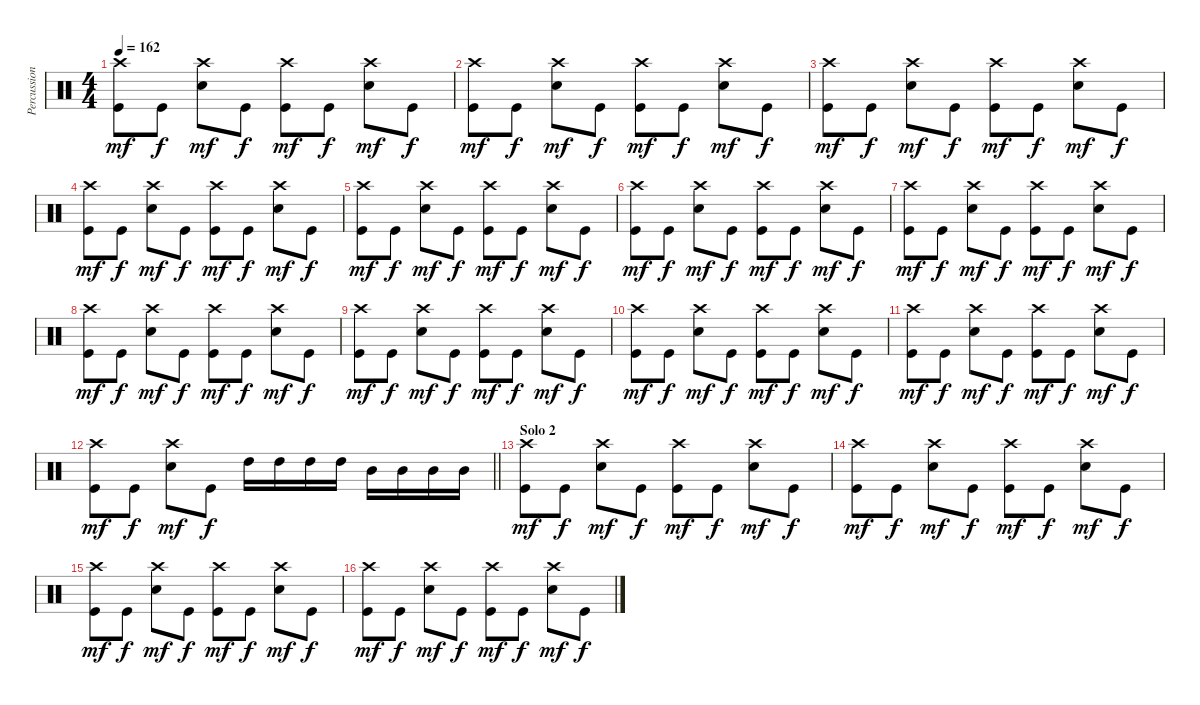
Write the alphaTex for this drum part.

\track ("Percussions" "Percussion") {instrument percussion}
\staff {score}
\articulation defaults
\ts (4 4)
\tempo 162
\clef neutral
\ks c
("Crash high (hit)" "Kick (hit)").8{dy mf} "Kick (hit)".8{dy f} ("Crash high (hit)" "Electric Snare (hit)").8{dy mf} "Kick (hit)".8{dy f} ("Crash high (hit)" "Kick (hit)").8{dy mf} "Kick (hit)".8{dy f} ("Crash high (hit)" "Electric Snare (hit)").8{dy mf} "Kick (hit)".8{dy f} |
("Crash high (hit)" "Kick (hit)").8{dy mf} "Kick (hit)".8{dy f} ("Crash high (hit)" "Electric Snare (hit)").8{dy mf} "Kick (hit)".8{dy f} ("Crash high (hit)" "Kick (hit)").8{dy mf} "Kick (hit)".8{dy f} ("Crash high (hit)" "Electric Snare (hit)").8{dy mf} "Kick (hit)".8{dy f} |
("Crash high (hit)" "Kick (hit)").8{dy mf} "Kick (hit)".8{dy f} ("Crash high (hit)" "Electric Snare (hit)").8{dy mf} "Kick (hit)".8{dy f} ("Crash high (hit)" "Kick (hit)").8{dy mf} "Kick (hit)".8{dy f} ("Crash high (hit)" "Electric Snare (hit)").8{dy mf} "Kick (hit)".8{dy f} |
("Crash high (hit)" "Kick (hit)").8{dy mf} "Kick (hit)".8{dy f} ("Crash high (hit)" "Electric Snare (hit)").8{dy mf} "Kick (hit)".8{dy f} ("Crash high (hit)" "Kick (hit)").8{dy mf} "Kick (hit)".8{dy f} ("Crash high (hit)" "Electric Snare (hit)").8{dy mf} "Kick (hit)".8{dy f} |
("Crash high (hit)" "Kick (hit)").8{dy mf} "Kick (hit)".8{dy f} ("Crash high (hit)" "Electric Snare (hit)").8{dy mf} "Kick (hit)".8{dy f} ("Crash high (hit)" "Kick (hit)").8{dy mf} "Kick (hit)".8{dy f} ("Crash high (hit)" "Electric Snare (hit)").8{dy mf} "Kick (hit)".8{dy f} |
("Crash high (hit)" "Kick (hit)").8{dy mf} "Kick (hit)".8{dy f} ("Crash high (hit)" "Electric Snare (hit)").8{dy mf} "Kick (hit)".8{dy f} ("Crash high (hit)" "Kick (hit)").8{dy mf} "Kick (hit)".8{dy f} ("Crash high (hit)" "Electric Snare (hit)").8{dy mf} "Kick (hit)".8{dy f} |
("Crash high (hit)" "Kick (hit)").8{dy mf} "Kick (hit)".8{dy f} ("Crash high (hit)" "Electric Snare (hit)").8{dy mf} "Kick (hit)".8{dy f} ("Crash high (hit)" "Kick (hit)").8{dy mf} "Kick (hit)".8{dy f} ("Crash high (hit)" "Electric Snare (hit)").8{dy mf} "Kick (hit)".8{dy f} |
("Crash high (hit)" "Kick (hit)").8{dy mf} "Kick (hit)".8{dy f} ("Crash high (hit)" "Electric Snare (hit)").8{dy mf} "Kick (hit)".8{dy f} ("Crash high (hit)" "Kick (hit)").8{dy mf} "Kick (hit)".8{dy f} ("Crash high (hit)" "Electric Snare (hit)").8{dy mf} "Kick (hit)".8{dy f} |
("Crash high (hit)" "Kick (hit)").8{dy mf} "Kick (hit)".8{dy f} ("Crash high (hit)" "Electric Snare (hit)").8{dy mf} "Kick (hit)".8{dy f} ("Crash high (hit)" "Kick (hit)").8{dy mf} "Kick (hit)".8{dy f} ("Crash high (hit)" "Electric Snare (hit)").8{dy mf} "Kick (hit)".8{dy f} |
("Crash high (hit)" "Kick (hit)").8{dy mf} "Kick (hit)".8{dy f} ("Crash high (hit)" "Electric Snare (hit)").8{dy mf} "Kick (hit)".8{dy f} ("Crash high (hit)" "Kick (hit)").8{dy mf} "Kick (hit)".8{dy f} ("Crash high (hit)" "Electric Snare (hit)").8{dy mf} "Kick (hit)".8{dy f} |
("Crash high (hit)" "Kick (hit)").8{dy mf} "Kick (hit)".8{dy f} ("Crash high (hit)" "Electric Snare (hit)").8{dy mf} "Kick (hit)".8{dy f} ("Crash high (hit)" "Kick (hit)").8{dy mf} "Kick (hit)".8{dy f} ("Crash high (hit)" "Electric Snare (hit)").8{dy mf} "Kick (hit)".8{dy f} |
\barLineRight lightlight
("Crash high (hit)" "Kick (hit)").8{dy mf} "Kick (hit)".8{dy f} ("Crash high (hit)" "Electric Snare (hit)").8{dy mf} "Kick (hit)".8{dy f} "High Tom (hit)".16 "High Tom (hit)".16 "High Tom (hit)".16 "High Tom (hit)".16 "Mid Tom (hit)".16 "Mid Tom (hit)".16 "Mid Tom (hit)".16 "Mid Tom (hit)".16 |
\section ("" "Solo 2")
("Crash high (hit)" "Kick (hit)").8{dy mf} "Kick (hit)".8{dy f} ("Crash high (hit)" "Electric Snare (hit)").8{dy mf} "Kick (hit)".8{dy f} ("Crash high (hit)" "Kick (hit)").8{dy mf} "Kick (hit)".8{dy f} ("Crash high (hit)" "Electric Snare (hit)").8{dy mf} "Kick (hit)".8{dy f} |
("Crash high (hit)" "Kick (hit)").8{dy mf} "Kick (hit)".8{dy f} ("Crash high (hit)" "Electric Snare (hit)").8{dy mf} "Kick (hit)".8{dy f} ("Crash high (hit)" "Kick (hit)").8{dy mf} "Kick (hit)".8{dy f} ("Crash high (hit)" "Electric Snare (hit)").8{dy mf} "Kick (hit)".8{dy f} |
("Crash high (hit)" "Kick (hit)").8{dy mf} "Kick (hit)".8{dy f} ("Crash high (hit)" "Electric Snare (hit)").8{dy mf} "Kick (hit)".8{dy f} ("Crash high (hit)" "Kick (hit)").8{dy mf} "Kick (hit)".8{dy f} ("Crash high (hit)" "Electric Snare (hit)").8{dy mf} "Kick (hit)".8{dy f} |
("Crash high (hit)" "Kick (hit)").8{dy mf} "Kick (hit)".8{dy f} ("Crash high (hit)" "Electric Snare (hit)").8{dy mf} "Kick (hit)".8{dy f} ("Crash high (hit)" "Kick (hit)").8{dy mf} "Kick (hit)".8{dy f} ("Crash high (hit)" "Electric Snare (hit)").8{dy mf} "Kick (hit)".8{dy f}
